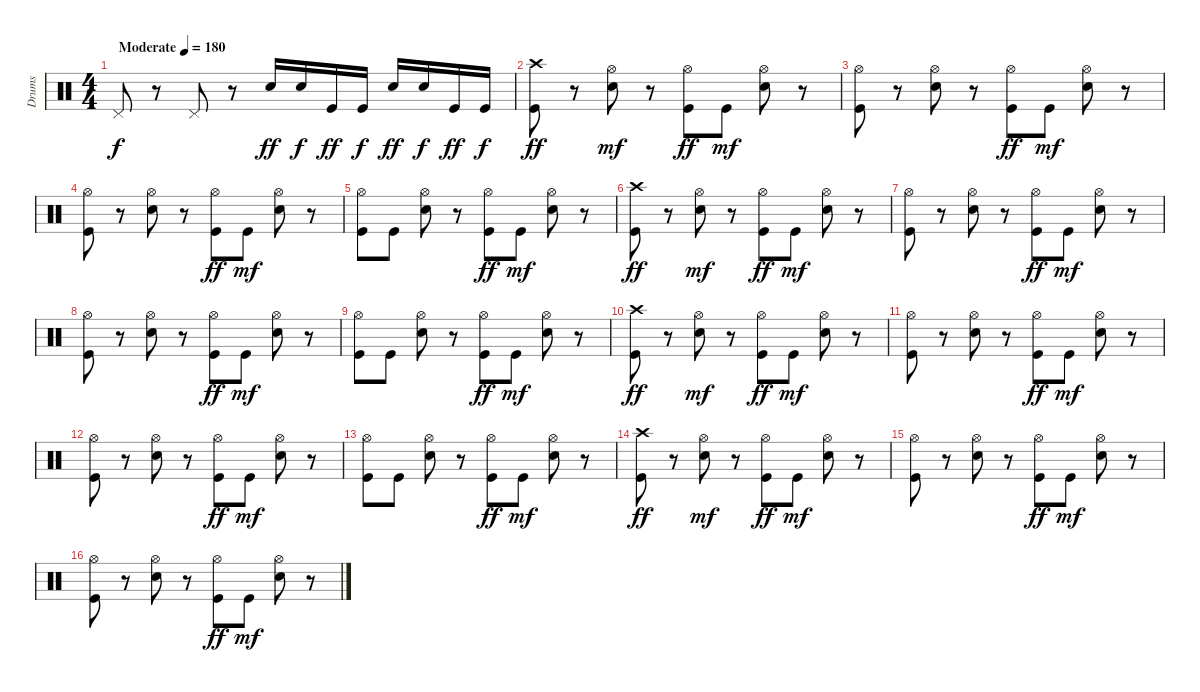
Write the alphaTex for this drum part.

\track ("Drums" "Drums") {instrument percussion}
\staff {score}
\articulation defaults
\ts (4 4)
\tempo (180 "Moderate")
\clef neutral
\ks c "Pedal Hi-Hat (hit)".8{dy f}
r.8 "Pedal Hi-Hat (hit)".8 r.8 "Snare (hit) 2".16{dy ff} "Electric Snare (hit)".16{dy f} "Kick (hit)".16{dy ff} "Kick (hit)".16{dy f} "Snare (hit) 2".16{dy ff} "Electric Snare (hit)".16{dy f} "Kick (hit)".16{dy ff} "Kick (hit)".16{dy f} |
("Crash high (hit)" "Kick (hit)").8{dy ff} r.8 ("Hi-Hat (open)" "Snare (hit) 2").8{dy mf} r.8 ("Hi-Hat (open)" "Kick (hit)").8{dy ff} "Kick (hit)".8{dy mf} ("Hi-Hat (open)" "Snare (hit) 2").8 r.8 |
("Kick (hit)" "Hi-Hat (open)").8 r.8 ("Hi-Hat (open)" "Snare (hit) 2").8 r.8 ("Hi-Hat (open)" "Kick (hit)").8{dy ff} "Kick (hit)".8{dy mf} ("Snare (hit) 2" "Hi-Hat (open)").8 r.8 |
("Kick (hit)" "Hi-Hat (open)").8 r.8 ("Hi-Hat (open)" "Snare (hit) 2").8 r.8 ("Hi-Hat (open)" "Kick (hit)").8{dy ff} "Kick (hit)".8{dy mf} ("Snare (hit) 2" "Hi-Hat (open)").8 r.8 |
("Kick (hit)" "Hi-Hat (open)").8 "Kick (hit)".8 ("Hi-Hat (open)" "Snare (hit) 2").8 r.8 ("Hi-Hat (open)" "Kick (hit)").8{dy ff} "Kick (hit)".8{dy mf} ("Hi-Hat (open)" "Snare (hit) 2").8 r.8 |
("Crash high (hit)" "Kick (hit)").8{dy ff} r.8 ("Hi-Hat (open)" "Snare (hit) 2").8{dy mf} r.8 ("Hi-Hat (open)" "Kick (hit)").8{dy ff} "Kick (hit)".8{dy mf} ("Hi-Hat (open)" "Snare (hit) 2").8 r.8 |
("Kick (hit)" "Hi-Hat (open)").8 r.8 ("Hi-Hat (open)" "Snare (hit) 2").8 r.8 ("Hi-Hat (open)" "Kick (hit)").8{dy ff} "Kick (hit)".8{dy mf} ("Snare (hit) 2" "Hi-Hat (open)").8 r.8 |
("Kick (hit)" "Hi-Hat (open)").8 r.8 ("Hi-Hat (open)" "Snare (hit) 2").8 r.8 ("Hi-Hat (open)" "Kick (hit)").8{dy ff} "Kick (hit)".8{dy mf} ("Snare (hit) 2" "Hi-Hat (open)").8 r.8 |
("Kick (hit)" "Hi-Hat (open)").8 "Kick (hit)".8 ("Hi-Hat (open)" "Snare (hit) 2").8 r.8 ("Hi-Hat (open)" "Kick (hit)").8{dy ff} "Kick (hit)".8{dy mf} ("Hi-Hat (open)" "Snare (hit) 2").8 r.8 |
("Crash high (hit)" "Kick (hit)").8{dy ff} r.8 ("Hi-Hat (open)" "Snare (hit) 2").8{dy mf} r.8 ("Hi-Hat (open)" "Kick (hit)").8{dy ff} "Kick (hit)".8{dy mf} ("Hi-Hat (open)" "Snare (hit) 2").8 r.8 |
("Kick (hit)" "Hi-Hat (open)").8 r.8 ("Hi-Hat (open)" "Snare (hit) 2").8 r.8 ("Hi-Hat (open)" "Kick (hit)").8{dy ff} "Kick (hit)".8{dy mf} ("Snare (hit) 2" "Hi-Hat (open)").8 r.8 |
("Kick (hit)" "Hi-Hat (open)").8 r.8 ("Hi-Hat (open)" "Snare (hit) 2").8 r.8 ("Hi-Hat (open)" "Kick (hit)").8{dy ff} "Kick (hit)".8{dy mf} ("Snare (hit) 2" "Hi-Hat (open)").8 r.8 |
("Kick (hit)" "Hi-Hat (open)").8 "Kick (hit)".8 ("Hi-Hat (open)" "Snare (hit) 2").8 r.8 ("Hi-Hat (open)" "Kick (hit)").8{dy ff} "Kick (hit)".8{dy mf} ("Hi-Hat (open)" "Snare (hit) 2").8 r.8 |
("Crash high (hit)" "Kick (hit)").8{dy ff} r.8 ("Hi-Hat (open)" "Snare (hit) 2").8{dy mf} r.8 ("Hi-Hat (open)" "Kick (hit)").8{dy ff} "Kick (hit)".8{dy mf} ("Hi-Hat (open)" "Snare (hit) 2").8 r.8 |
("Kick (hit)" "Hi-Hat (open)").8 r.8 ("Hi-Hat (open)" "Snare (hit) 2").8 r.8 ("Hi-Hat (open)" "Kick (hit)").8{dy ff} "Kick (hit)".8{dy mf} ("Snare (hit) 2" "Hi-Hat (open)").8 r.8 |
("Kick (hit)" "Hi-Hat (open)").8 r.8 ("Hi-Hat (open)" "Snare (hit) 2").8 r.8 ("Hi-Hat (open)" "Kick (hit)").8{dy ff} "Kick (hit)".8{dy mf} ("Snare (hit) 2" "Hi-Hat (open)").8 r.8
